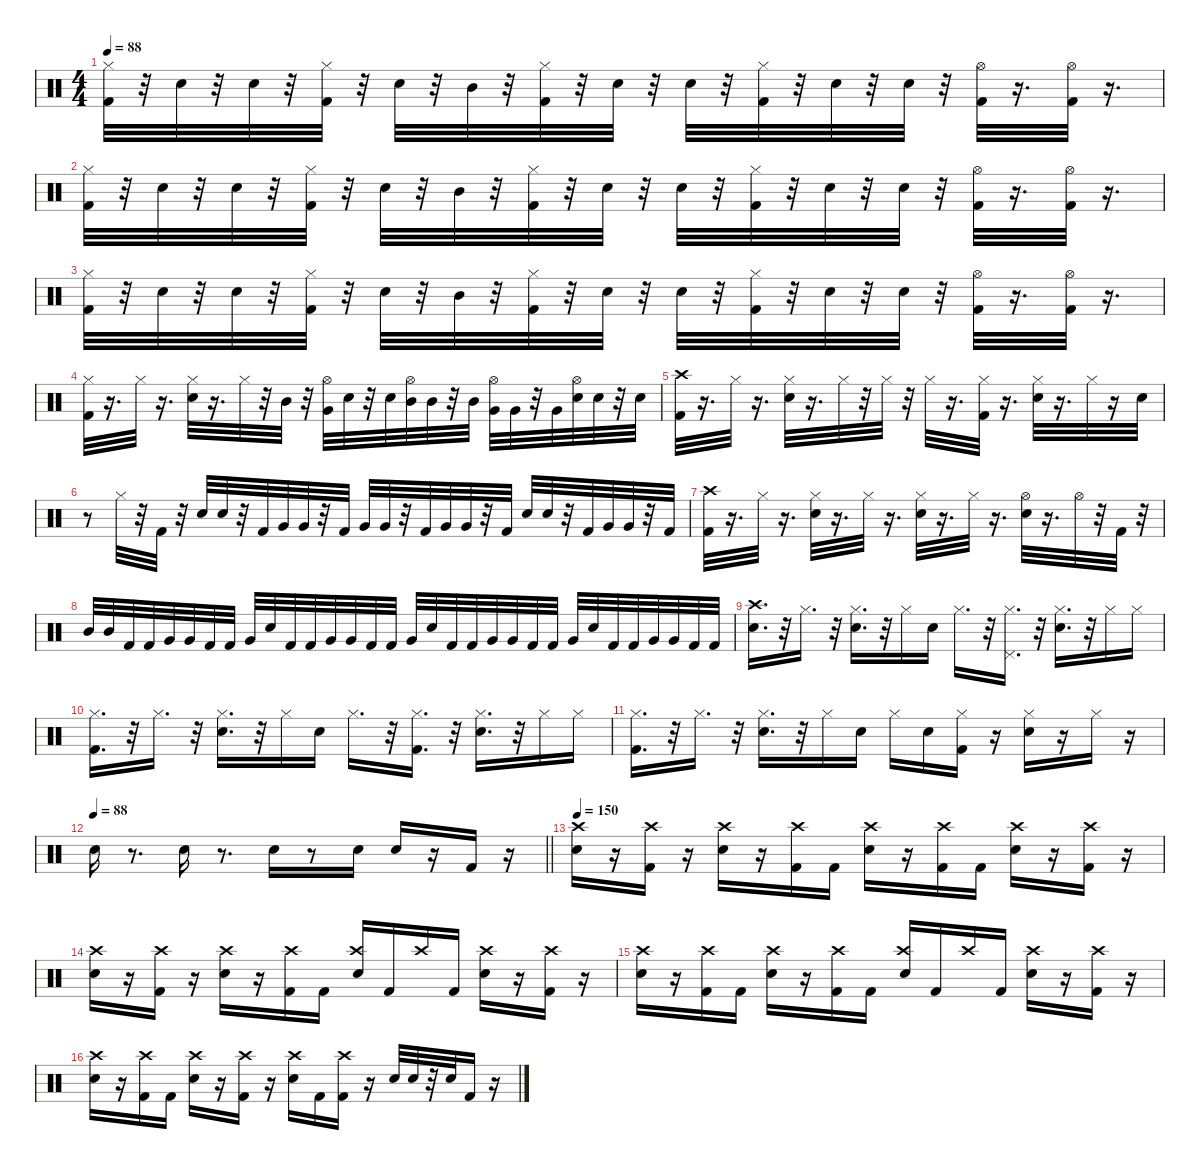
\defaultSystemsLayout 4
\hideDynamics
\bracketExtendMode nobrackets
\singleTrackTrackNamePolicy hidden
\multiTrackTrackNamePolicy hidden
\firstSystemTrackNameMode fullname
\firstSystemTrackNameOrientation horizontal
\otherSystemsTrackNameOrientation horizontal
\track ("Bonzo" "drm.") {instrument percussion}
\staff {score}
\articulation defaults
\ts (4 4)
\tempo 88
\clef neutral
\ks c
("Kick (hit) 2" "Hi-Hat (closed)").32{dy fff beam Down} r.32{beam Down} "Snare (hit) 2".32{beam Down} r.32{beam Down} "Snare (hit) 2".32{beam Down} r.32{beam Down} ("Kick (hit) 2" "Hi-Hat (closed)").32{beam Down} r.32{beam Down} "Snare (hit) 2".32{beam Down} r.32{beam Down} "Mid Tom (hit)".32{beam Down} r.32{beam Down} ("Kick (hit) 2" "Hi-Hat (closed)").32{beam Down} r.32{beam Down} "Snare (hit) 2".32{beam Down} r.32{beam Down} "Snare (hit) 2".32{beam Down} r.32{beam Down} ("Kick (hit) 2" "Hi-Hat (closed)").32{beam Down} r.32{beam Down} "Snare (hit) 2".32{beam Down} r.32{beam Down} "Snare (hit) 2".32{beam Down} r.32{beam Down} ("Kick (hit) 2" "Hi-Hat (open)").32{beam Down} r.16{d beam Down} ("Kick (hit) 2" "Hi-Hat (open)").32{beam Down} r.16{d beam Down} |
("Kick (hit) 2" "Hi-Hat (closed)").32{beam Down} r.32{beam Down} "Snare (hit) 2".32{beam Down} r.32{beam Down} "Snare (hit) 2".32{beam Down} r.32{beam Down} ("Kick (hit) 2" "Hi-Hat (closed)").32{beam Down} r.32{beam Down} "Snare (hit) 2".32{beam Down} r.32{beam Down} "Mid Tom (hit)".32{beam Down} r.32{beam Down} ("Kick (hit) 2" "Hi-Hat (closed)").32{beam Down} r.32{beam Down} "Snare (hit) 2".32{beam Down} r.32{beam Down} "Snare (hit) 2".32{beam Down} r.32{beam Down} ("Kick (hit) 2" "Hi-Hat (closed)").32{beam Down} r.32{beam Down} "Snare (hit) 2".32{beam Down} r.32{beam Down} "Snare (hit) 2".32{beam Down} r.32{beam Down} ("Kick (hit) 2" "Hi-Hat (open)").32{beam Down} r.16{d beam Down} ("Kick (hit) 2" "Hi-Hat (open)").32{beam Down} r.16{d beam Down} |
("Kick (hit) 2" "Hi-Hat (closed)").32{beam Down} r.32{beam Down} "Snare (hit) 2".32{beam Down} r.32{beam Down} "Snare (hit) 2".32{beam Down} r.32{beam Down} ("Kick (hit) 2" "Hi-Hat (closed)").32{beam Down} r.32{beam Down} "Snare (hit) 2".32{beam Down} r.32{beam Down} "Mid Tom (hit)".32{beam Down} r.32{beam Down} ("Kick (hit) 2" "Hi-Hat (closed)").32{beam Down} r.32{beam Down} "Snare (hit) 2".32{beam Down} r.32{beam Down} "Snare (hit) 2".32{beam Down} r.32{beam Down} ("Kick (hit) 2" "Hi-Hat (closed)").32{beam Down} r.32{beam Down} "Snare (hit) 2".32{beam Down} r.32{beam Down} "Snare (hit) 2".32{beam Down} r.32{beam Down} ("Kick (hit) 2" "Hi-Hat (open)").32{beam Down} r.16{d beam Down} ("Kick (hit) 2" "Hi-Hat (open)").32{beam Down} r.16{d beam Down} |
("Kick (hit) 2" "Hi-Hat (closed)").32{beam Down} r.16{d beam Down} "Hi-Hat (closed)".32{dy ff beam Down} r.16{d beam Down} ("Snare (hit) 2" "Hi-Hat (closed)").32{dy fff beam Down} r.16{d beam Down} "Hi-Hat (closed)".32{dy ff beam Down} r.32{beam Down} "Mid Tom (hit)".32{beam Down} r.32{beam Down} ("Very Low Tom (hit)" "Hi-Hat (open)").32{beam Down} "Snare (hit) 2".32{dy fff beam Down} r.32{beam Down} "Snare (hit) 2".32{beam Down} ("Hi-Hat (open)" "Mid Tom (hit)").32{dy ff beam Down} "Mid Tom (hit)".32{beam Down} r.32{beam Down} "Mid Tom (hit)".32{beam Down} ("Very Low Tom (hit)" "Hi-Hat (open)").32{beam Down} "Very Low Tom (hit)".32{beam Down} r.32{beam Down} "Very Low Tom (hit)".32{beam Down} ("Snare (hit) 2" "Hi-Hat (open)").32{dy fff beam Down} "Snare (hit) 2".32{beam Down} r.32{beam Down} "Snare (hit) 2".32{beam Down} |
("Kick (hit) 2" "Crash high (hit)").32{beam Down} r.16{d beam Down} "Hi-Hat (closed)".32{dy ff beam Down} r.16{d beam Down} ("Snare (hit) 2" "Hi-Hat (closed)").32{dy fff beam Down} r.16{d beam Down} "Hi-Hat (closed)".32{dy ff beam Down} r.32{beam Down} "Hi-Hat (closed)".32{beam Down} r.32{beam Down} "Hi-Hat (closed)".32{beam Down} r.16{d beam Down} ("Kick (hit) 2" "Hi-Hat (closed)").32{dy fff beam Down} r.16{d beam Down} ("Snare (hit) 2" "Hi-Hat (closed)").32{beam Down} r.16{d beam Down} "Hi-Hat (closed)".32{dy ff beam Down} r.16{beam Down} "Snare (hit) 2".32{dy fff beam Down} |
r.8{beam Down} "Hi-Hat (closed)".32{dy ff beam Down} r.32{beam Down} "Kick (hit) 2".32{dy fff beam Down} r.32{beam Down} "Snare (hit) 2".32{beam Up} "Snare (hit) 2".32{beam Up} r.32{beam Up} "Kick (hit) 2".32{beam Up} "Very Low Tom (hit)".32{dy ff beam Up} "Very Low Tom (hit)".32{beam Up} r.32{beam Up} "Kick (hit) 2".32{dy fff beam Up} "Very Low Tom (hit)".32{dy ff beam Up} "Very Low Tom (hit)".32{beam Up} r.32{beam Up} "Kick (hit) 2".32{dy fff beam Up} "Very Low Tom (hit)".32{dy ff beam Up} "Very Low Tom (hit)".32{beam Up} r.32{beam Up} "Kick (hit) 2".32{dy fff beam Up} "Snare (hit) 2".32{beam Up} "Snare (hit) 2".32{beam Up} r.32{beam Up} "Kick (hit) 2".32{beam Up} "Very Low Tom (hit)".32{dy ff beam Up} "Very Low Tom (hit)".32{beam Up} r.32{beam Up} "Kick (hit) 2".32{dy fff beam Up} |
("Kick (hit) 2" "Crash high (hit)").32{beam Down} r.16{d beam Down} "Hi-Hat (closed)".32{dy ff beam Down} r.16{d beam Down} ("Snare (hit) 2" "Hi-Hat (closed)").32{dy fff beam Down} r.16{d beam Down} "Hi-Hat (closed)".32{dy ff beam Down} r.16{d beam Down} ("Snare (hit) 2" "Hi-Hat (closed)").32{dy fff beam Down} r.16{d beam Down} "Hi-Hat (closed)".32{dy ff beam Down} r.16{d beam Down} ("Snare (hit) 2" "Hi-Hat (open)").32{dy fff beam Down} r.16{d beam Down} "Hi-Hat (open)".32{dy ff beam Down} r.32{beam Down} "Kick (hit) 2".32{dy fff beam Down} r.32{beam Down} |
"Mid Tom (hit)".32{dy ff beam Up} "Mid Tom (hit)".32{beam Up} "Kick (hit) 2".32{dy fff beam Up} "Kick (hit) 2".32{beam Up} "Very Low Tom (hit)".32{dy ff beam Up} "Very Low Tom (hit)".32{beam Up} "Kick (hit) 2".32{dy fff beam Up} "Kick (hit) 2".32{beam Up} "Very Low Tom (hit)".32{dy ff beam Up} "Snare (hit) 2".32{dy fff beam Up} "Kick (hit) 2".32{beam Up} "Kick (hit) 2".32{beam Up} "Very Low Tom (hit)".32{dy ff beam Up} "Very Low Tom (hit)".32{beam Up} "Kick (hit) 2".32{dy fff beam Up} "Kick (hit) 2".32{beam Up} "Very Low Tom (hit)".32{dy ff beam Up} "Snare (hit) 2".32{dy fff beam Up} "Kick (hit) 2".32{beam Up} "Kick (hit) 2".32{beam Up} "Very Low Tom (hit)".32{dy ff beam Up} "Very Low Tom (hit)".32{beam Up} "Kick (hit) 2".32{dy fff beam Up} "Kick (hit) 2".32{beam Up} "Very Low Tom (hit)".32{dy ff beam Up} "Snare (hit) 2".32{dy fff beam Up} "Kick (hit) 2".32{beam Up} "Kick (hit) 2".32{beam Up} "Very Low Tom (hit)".32{dy ff beam Up} "Very Low Tom (hit)".32{beam Up} "Kick (hit) 2".32{dy fff beam Up} "Kick (hit) 2".32{beam Up} |
("Snare (hit) 2" "Crash high (hit)").16{d beam Down} r.32{beam Down} "Hi-Hat (closed)".16{d dy ff beam Down} r.32{beam Down} ("Snare (hit) 2" "Hi-Hat (closed)").16{d dy fff beam Down} r.32{beam Down} "Hi-Hat (closed)".16{dy ff beam Down} "Snare (hit) 2".16{dy fff beam Down} "Hi-Hat (closed)".16{d dy ff beam Down} r.32{beam Down} ("Hi-Hat (closed)" "Pedal Hi-Hat (hit)").16{d beam Down} r.32{beam Down} ("Snare (hit) 2" "Hi-Hat (closed)").16{d dy fff beam Down} r.32{beam Down} "Hi-Hat (closed)".16{dy ff beam Down} "Hi-Hat (closed)".16{beam Down} |
("Kick (hit) 2" "Hi-Hat (closed)").16{d dy fff beam Down} r.32{beam Down} "Hi-Hat (closed)".16{d dy ff beam Down} r.32{beam Down} ("Snare (hit) 2" "Hi-Hat (closed)").16{d dy fff beam Down} r.32{beam Down} "Hi-Hat (closed)".16{dy ff beam Down} "Snare (hit) 2".16{dy fff beam Down} "Hi-Hat (closed)".16{d dy ff beam Down} r.32{beam Down} ("Kick (hit) 2" "Hi-Hat (closed)").16{d dy fff beam Down} r.32{beam Down} ("Snare (hit) 2" "Hi-Hat (closed)").16{d beam Down} r.32{beam Down} "Hi-Hat (closed)".16{dy ff beam Down} "Hi-Hat (closed)".16{beam Down} |
("Kick (hit) 2" "Hi-Hat (closed)").16{d dy fff beam Down} r.32{beam Down} "Hi-Hat (closed)".16{d dy ff beam Down} r.32{beam Down} ("Snare (hit) 2" "Hi-Hat (closed)").16{d dy fff beam Down} r.32{beam Down} "Hi-Hat (closed)".16{dy ff beam Down} "Snare (hit) 2".16{dy fff beam Down} "Hi-Hat (closed)".16{dy ff beam Down} "Snare (hit) 2".16{dy fff beam Down} ("Kick (hit) 2" "Hi-Hat (closed)").16{beam Down} r.16{beam Down} ("Snare (hit) 2" "Hi-Hat (closed)").16{beam Down} r.16{beam Down} "Hi-Hat (closed)".16{dy ff beam Down} r.16{beam Down} |
\tempo 88
\barLineRight lightlight "Snare (hit) 2".16{dy fff beam Down}
r.8{d beam Down} "Snare (hit) 2".16{beam Down} r.8{d beam Down} "Snare (hit) 2".16{beam Down} r.8{beam Down} "Snare (hit) 2".16{beam Down} "Snare (hit) 2".16{beam Up} r.16{beam Up} "Kick (hit) 2".16{beam Up} r.16{beam Up} |
\tempo 150
("Snare (hit) 2" "Crash high (hit)").16{beam Down} r.16{beam Down} ("Kick (hit) 2" "Crash high (hit)").16{beam Down} r.16{beam Down} ("Snare (hit) 2" "Crash high (hit)").16{beam Down} r.16{beam Down} ("Kick (hit) 2" "Crash high (hit)").16{beam Down} "Kick (hit) 2".16{beam Down} ("Snare (hit) 2" "Crash high (hit)").16{beam Down} r.16{beam Down} ("Kick (hit) 2" "Crash high (hit)").16{beam Down} "Kick (hit) 2".16{beam Down} ("Snare (hit) 2" "Crash high (hit)").16{beam Down} r.16{beam Down} ("Kick (hit) 2" "Crash high (hit)").16{beam Down} r.16{beam Down} |
("Snare (hit) 2" "Crash high (hit)").16{beam Down} r.16{beam Down} ("Kick (hit) 2" "Crash high (hit)").16{beam Down} r.16{beam Down} ("Snare (hit) 2" "Crash high (hit)").16{beam Down} r.16{beam Down} ("Kick (hit) 2" "Crash high (hit)").16{beam Down} "Kick (hit) 2".16{beam Down} ("Snare (hit) 2" "Crash high (hit)").16{beam Up} "Kick (hit) 2".16{beam Up} "Crash high (hit)".16{dy ff beam Up} "Kick (hit) 2".16{dy fff beam Up} ("Snare (hit) 2" "Crash high (hit)").16{beam Down} r.16{beam Down} ("Kick (hit) 2" "Crash high (hit)").16{beam Down} r.16{beam Down} |
("Snare (hit) 2" "Crash high (hit)").16{beam Down} r.16{beam Down} ("Kick (hit) 2" "Crash high (hit)").16{beam Down} "Kick (hit) 2".16{beam Down} ("Snare (hit) 2" "Crash high (hit)").16{beam Down} r.16{beam Down} ("Kick (hit) 2" "Crash high (hit)").16{beam Down} "Kick (hit) 2".16{beam Down} ("Snare (hit) 2" "Crash high (hit)").16{beam Up} "Kick (hit) 2".16{beam Up} "Crash high (hit)".16{dy ff beam Up} "Kick (hit) 2".16{dy fff beam Up} ("Snare (hit) 2" "Crash high (hit)").16{beam Down} r.16{beam Down} ("Kick (hit) 2" "Crash high (hit)").16{beam Down} r.16{beam Down} |
("Snare (hit) 2" "Crash high (hit)").16{beam Down} r.16{beam Down} ("Kick (hit) 2" "Crash high (hit)").16{beam Down} "Kick (hit) 2".16{beam Down} ("Snare (hit) 2" "Crash high (hit)").16{beam Down} r.16{beam Down} ("Kick (hit) 2" "Crash high (hit)").16{beam Down} r.16{beam Down} ("Snare (hit) 2" "Crash high (hit)").16{beam Down} "Kick (hit) 2".16{beam Down} ("Kick (hit) 2" "Crash high (hit)").16{beam Down} r.16{beam Down} "Snare (hit) 2".32{beam Up} "Snare (hit) 2".32{beam Up} r.32{beam Up} "Snare (hit) 2".32{beam Up} "Kick (hit) 2".16{beam Up} r.16{beam Up}
